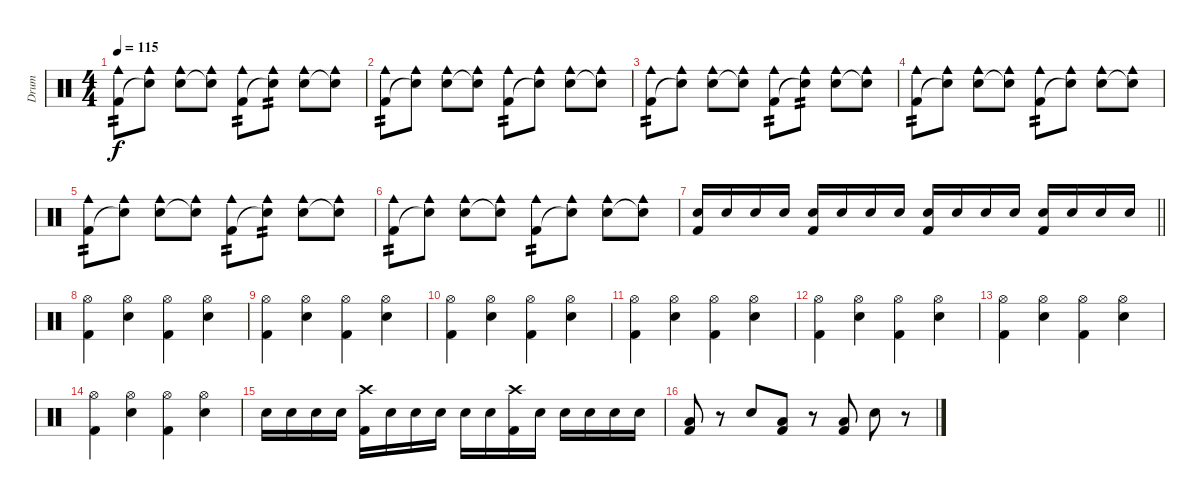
\track ("Drum" "Drum") {instrument percussion}
\staff {score}
\articulation defaults
\ts (4 4)
\tempo 115
\clef neutral
\ks c
("Kick (hit) 2" "Cowbell medium (hit)").8{tp 2 dy f} ("Snare (hit)"{t} "Cowbell medium (hit)").8 ("Snare (hit) 2" "Cowbell medium (hit)").8 ("Snare (hit)"{t} "Cowbell medium (hit)").8 ("Kick (hit) 2" "Cowbell medium (hit)").8{tp 2} ("Snare (hit)"{t} "Cowbell medium (hit)").8{tp 2} ("Snare (hit) 2" "Cowbell medium (hit)").8 ("Snare (hit)"{t} "Cowbell medium (hit)").8 |
("Kick (hit) 2" "Cowbell medium (hit)").8{tp 2} ("Snare (hit)"{t} "Cowbell medium (hit)").8 ("Snare (hit) 2" "Cowbell medium (hit)").8 ("Snare (hit)"{t} "Cowbell medium (hit)").8 ("Kick (hit) 2" "Cowbell medium (hit)").8{tp 2} ("Snare (hit)"{t} "Cowbell medium (hit)").8 ("Snare (hit) 2" "Cowbell medium (hit)").8 ("Snare (hit)"{t} "Cowbell medium (hit)").8 |
("Kick (hit) 2" "Cowbell medium (hit)").8{tp 2} ("Snare (hit)"{t} "Cowbell medium (hit)").8 ("Snare (hit) 2" "Cowbell medium (hit)").8 ("Snare (hit)"{t} "Cowbell medium (hit)").8 ("Kick (hit) 2" "Cowbell medium (hit)").8{tp 2} ("Snare (hit)"{t} "Cowbell medium (hit)").8{tp 2} ("Snare (hit) 2" "Cowbell medium (hit)").8 ("Snare (hit)"{t} "Cowbell medium (hit)").8 |
("Kick (hit) 2" "Cowbell medium (hit)").8{tp 2} ("Snare (hit)"{t} "Cowbell medium (hit)").8 ("Snare (hit) 2" "Cowbell medium (hit)").8 ("Snare (hit)"{t} "Cowbell medium (hit)").8 ("Kick (hit) 2" "Cowbell medium (hit)").8{tp 2} ("Snare (hit)"{t} "Cowbell medium (hit)").8 ("Snare (hit) 2" "Cowbell medium (hit)").8 ("Snare (hit)"{t} "Cowbell medium (hit)").8 |
("Kick (hit) 2" "Cowbell medium (hit)").8{tp 2} ("Snare (hit)"{t} "Cowbell medium (hit)").8 ("Snare (hit) 2" "Cowbell medium (hit)").8 ("Snare (hit)"{t} "Cowbell medium (hit)").8 ("Kick (hit) 2" "Cowbell medium (hit)").8{tp 2} ("Snare (hit)"{t} "Cowbell medium (hit)").8{tp 2} ("Snare (hit) 2" "Cowbell medium (hit)").8 ("Snare (hit)"{t} "Cowbell medium (hit)").8 |
("Kick (hit) 2" "Cowbell medium (hit)").8{tp 2} ("Snare (hit)"{t} "Cowbell medium (hit)").8 ("Snare (hit) 2" "Cowbell medium (hit)").8 ("Snare (hit)"{t} "Cowbell medium (hit)").8 ("Kick (hit) 2" "Cowbell medium (hit)").8{tp 2} ("Snare (hit)"{t} "Cowbell medium (hit)").8 ("Snare (hit) 2" "Cowbell medium (hit)").8 ("Snare (hit)"{t} "Cowbell medium (hit)").8 |
\barLineRight lightlight
("Snare (hit) 2" "Kick (hit) 2").16 "Snare (hit) 2".16 "Snare (hit) 2".16 "Snare (hit) 2".16 ("Snare (hit) 2" "Kick (hit) 2").16 "Snare (hit) 2".16 "Snare (hit) 2".16 "Snare (hit) 2".16 ("Snare (hit) 2" "Kick (hit) 2").16 "Snare (hit) 2".16 "Snare (hit) 2".16 "Snare (hit) 2".16 ("Snare (hit) 2" "Kick (hit) 2").16 "Snare (hit) 2".16 "Snare (hit) 2".16 "Snare (hit) 2".16 |
\section ("" "")
("Kick (hit) 2" "Hi-Hat (open)").4 ("Snare (hit) 2" "Hi-Hat (open)").4 ("Kick (hit) 2" "Hi-Hat (open)").4 ("Snare (hit) 2" "Hi-Hat (open)").4 |
("Kick (hit) 2" "Hi-Hat (open)").4 ("Snare (hit) 2" "Hi-Hat (open)").4 ("Kick (hit) 2" "Hi-Hat (open)").4 ("Snare (hit) 2" "Hi-Hat (open)").4 |
("Kick (hit) 2" "Hi-Hat (open)").4 ("Snare (hit) 2" "Hi-Hat (open)").4 ("Kick (hit) 2" "Hi-Hat (open)").4 ("Snare (hit) 2" "Hi-Hat (open)").4 |
("Kick (hit) 2" "Hi-Hat (open)").4 ("Snare (hit) 2" "Hi-Hat (open)").4 ("Kick (hit) 2" "Hi-Hat (open)").4 ("Snare (hit) 2" "Hi-Hat (open)").4 |
("Kick (hit) 2" "Hi-Hat (open)").4 ("Snare (hit) 2" "Hi-Hat (open)").4 ("Kick (hit) 2" "Hi-Hat (open)").4 ("Snare (hit) 2" "Hi-Hat (open)").4 |
("Kick (hit) 2" "Hi-Hat (open)").4 ("Snare (hit) 2" "Hi-Hat (open)").4 ("Kick (hit) 2" "Hi-Hat (open)").4 ("Snare (hit) 2" "Hi-Hat (open)").4 |
("Kick (hit) 2" "Hi-Hat (open)").4 ("Snare (hit) 2" "Hi-Hat (open)").4 ("Kick (hit) 2" "Hi-Hat (open)").4 ("Snare (hit) 2" "Hi-Hat (open)").4 |
"Snare (hit) 2".16 "Snare (hit) 2".16 "Snare (hit) 2".16 "Snare (hit) 2".16 ("Kick (hit) 2" "Crash high (hit)").16 "Snare (hit) 2".16 "Snare (hit) 2".16 "Snare (hit) 2".16 "Snare (hit) 2".16 "Snare (hit) 2".16 ("Kick (hit) 2" "Crash high (hit)").16 "Snare (hit) 2".16 "Snare (hit) 2".16 "Snare (hit) 2".16 "Snare (hit) 2".16 "Snare (hit) 2".16 |
("Low Floor Tom (hit)" "Kick (hit) 2").8 r.8 "Snare (hit) 2".8 ("Low Floor Tom (hit)" "Kick (hit) 2").8 r.8 ("Low Floor Tom (hit)" "Kick (hit) 2").8 "Snare (hit) 2".8 r.8
